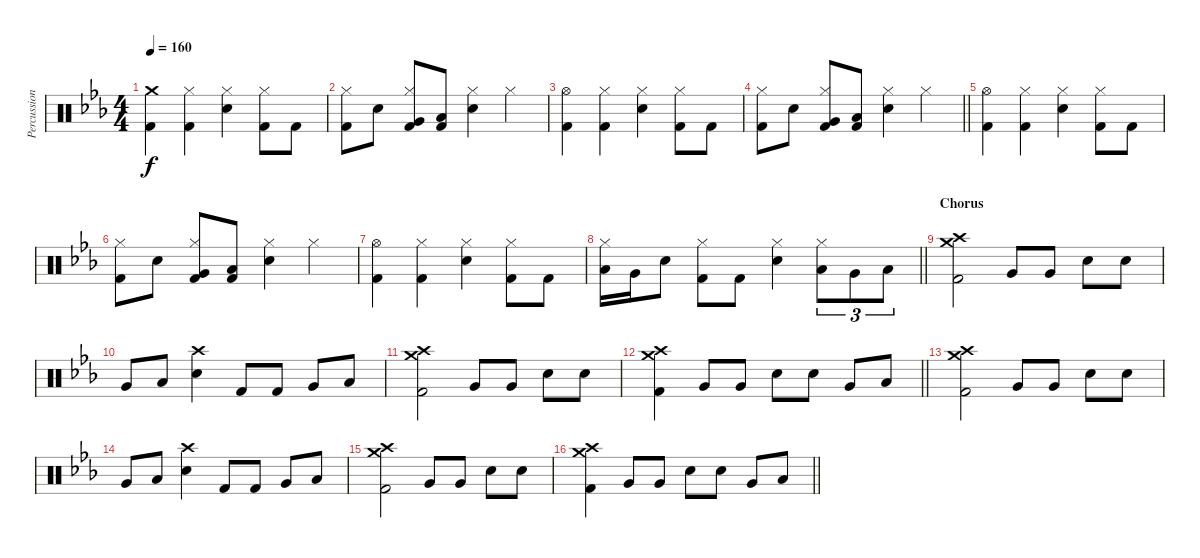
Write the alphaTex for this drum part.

\track ("Percussion" "Percussion") {instrument percussion}
\staff {score}
\articulation defaults
\ts (4 4)
\section ("" "")
\tempo 160
\clef neutral
\ks eb
("Crash medium (hit)" "Kick (hit) 2").4{dy f} ("Hi-Hat (closed)" "Kick (hit) 2").4 ("Hi-Hat (closed)" "Snare (hit) 2").4 ("Hi-Hat (closed)" "Kick (hit) 2").8 "Kick (hit) 2".8 |
("Hi-Hat (closed)" "Kick (hit) 2").8 "Snare (hit) 2".8 ("Hi-Hat (closed)" "Very Low Tom (hit)" "Kick (hit) 2").8 ("Low Floor Tom (hit)" "Kick (hit) 2").8 ("Hi-Hat (closed)" "Snare (hit) 2").4 "Hi-Hat (closed)".4 |
("Hi-Hat (open)" "Kick (hit) 2").4 ("Hi-Hat (closed)" "Kick (hit) 2").4 ("Hi-Hat (closed)" "Snare (hit) 2").4 ("Hi-Hat (closed)" "Kick (hit) 2").8 "Kick (hit) 2".8 |
\barLineRight lightlight
("Hi-Hat (closed)" "Kick (hit) 2").8 "Snare (hit) 2".8 ("Hi-Hat (closed)" "Very Low Tom (hit)" "Kick (hit) 2").8 ("Low Floor Tom (hit)" "Kick (hit) 2").8 ("Hi-Hat (closed)" "Snare (hit) 2").4 "Hi-Hat (closed)".4 |
\section ("" "")
("Hi-Hat (open)" "Kick (hit) 2").4 ("Hi-Hat (closed)" "Kick (hit) 2").4 ("Hi-Hat (closed)" "Snare (hit) 2").4 ("Hi-Hat (closed)" "Kick (hit) 2").8 "Kick (hit) 2".8 |
("Hi-Hat (closed)" "Kick (hit) 2").8 "Snare (hit) 2".8 ("Hi-Hat (closed)" "Very Low Tom (hit)" "Kick (hit) 2").8 ("Low Floor Tom (hit)" "Kick (hit) 2").8 ("Hi-Hat (closed)" "Snare (hit) 2").4 "Hi-Hat (closed)".4 |
("Hi-Hat (open)" "Kick (hit) 2").4 ("Hi-Hat (closed)" "Kick (hit) 2").4 ("Hi-Hat (closed)" "Snare (hit) 2").4 ("Hi-Hat (closed)" "Kick (hit) 2").8 "Kick (hit) 2".8 |
\barLineRight lightlight
("Hi-Hat (closed)" "Low Floor Tom (hit)").16 "Very Low Tom (hit)".16 "Snare (hit) 2".8 ("Hi-Hat (closed)" "Kick (hit) 2").8 "Kick (hit) 2".8 ("Hi-Hat (closed)" "Snare (hit) 2").4 ("Hi-Hat (closed)" "Low Tom (hit)").8{tu (3 2)} "Very Low Tom (hit)".8{tu (3 2)} "Low Floor Tom (hit)".8{tu (3 2)} |
\section ("" "Chorus")
("Crash high (hit)" "Crash medium (hit)" "Kick (hit) 2").2 "Very Low Tom (hit)".8 "Very Low Tom (hit)".8 "Snare (hit) 2".8 "Snare (hit) 2".8 |
"Very Low Tom (hit)".8 "Low Floor Tom (hit)".8 ("Crash high (hit)" "Snare (hit) 2").4 "Kick (hit) 2".8 "Kick (hit) 2".8 "Very Low Tom (hit)".8 "Low Floor Tom (hit)".8 |
("Crash high (hit)" "Crash medium (hit)" "Kick (hit) 2").2 "Very Low Tom (hit)".8 "Very Low Tom (hit)".8 "Snare (hit) 2".8 "Snare (hit) 2".8 |
\barLineRight lightlight
("Crash high (hit)" "Crash medium (hit)" "Kick (hit) 2").4 "Very Low Tom (hit)".8 "Very Low Tom (hit)".8 "Snare (hit) 2".8 "Snare (hit) 2".8 "Very Low Tom (hit)".8 "Low Floor Tom (hit)".8 |
\section ("" "")
("Crash high (hit)" "Crash medium (hit)" "Kick (hit) 2").2 "Very Low Tom (hit)".8 "Very Low Tom (hit)".8 "Snare (hit) 2".8 "Snare (hit) 2".8 |
"Very Low Tom (hit)".8 "Low Floor Tom (hit)".8 ("Crash high (hit)" "Snare (hit) 2").4 "Kick (hit) 2".8 "Kick (hit) 2".8 "Very Low Tom (hit)".8 "Low Floor Tom (hit)".8 |
("Crash high (hit)" "Crash medium (hit)" "Kick (hit) 2").2 "Very Low Tom (hit)".8 "Very Low Tom (hit)".8 "Snare (hit) 2".8 "Snare (hit) 2".8 |
\barLineRight lightlight
("Crash high (hit)" "Crash medium (hit)" "Kick (hit) 2").4 "Very Low Tom (hit)".8 "Very Low Tom (hit)".8 "Snare (hit) 2".8 "Snare (hit) 2".8 "Very Low Tom (hit)".8 "Low Floor Tom (hit)".8
